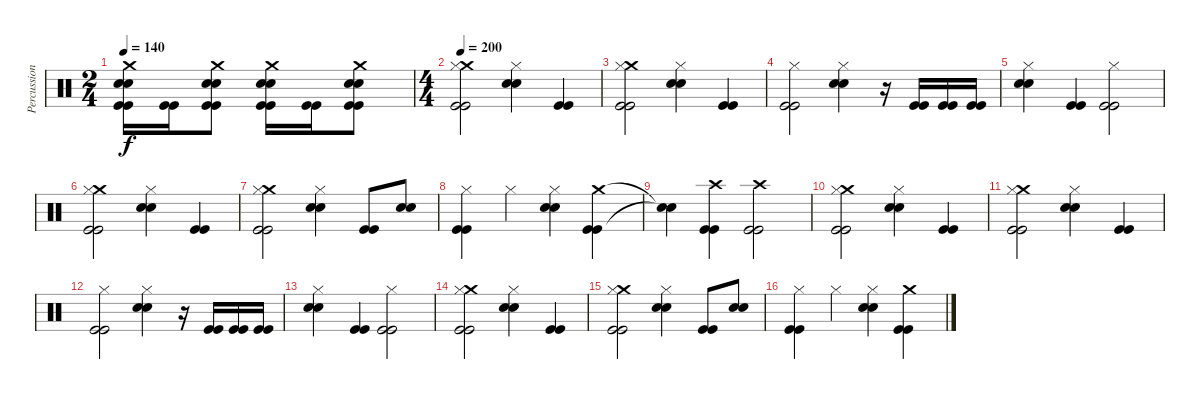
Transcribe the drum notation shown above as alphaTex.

\track ("Percussion" "Percussion") {instrument percussion}
\staff {score}
\articulation defaults
\ts (2 4)
\tempo 140
\clef neutral
\ks c
("Crash medium (hit)" "Snare (hit) 2" "Snare (hit) 2" "Kick (hit)" "Kick (hit)").16{dy f} ("Kick (hit)" "Kick (hit)").16 ("Crash medium (hit)" "Snare (hit) 2" "Snare (hit) 2" "Kick (hit)" "Kick (hit)").8 ("Crash medium (hit)" "Snare (hit) 2" "Snare (hit) 2" "Kick (hit)" "Kick (hit)").16 ("Kick (hit)" "Kick (hit)").16 ("Crash medium (hit)" "Snare (hit) 2" "Snare (hit) 2" "Kick (hit)" "Kick (hit)").8 |
\ts (4 4)
\tempo 200
("Crash medium (hit)" "Hi-Hat (closed)" "Kick (hit)" "Kick (hit)").2 ("Snare (hit) 2" "Snare (hit) 2" "Hi-Hat (closed)").4 ("Kick (hit)" "Kick (hit)").4 |
("Crash medium (hit)" "Hi-Hat (closed)" "Kick (hit)" "Kick (hit)").2 ("Snare (hit) 2" "Snare (hit) 2" "Hi-Hat (closed)").4 ("Kick (hit)" "Kick (hit)").4 |
("Hi-Hat (closed)" "Kick (hit)" "Kick (hit)").2 ("Snare (hit) 2" "Snare (hit) 2" "Hi-Hat (closed)").4 r.16 ("Kick (hit)" "Kick (hit)").16 ("Kick (hit)" "Kick (hit)").16 ("Kick (hit)" "Kick (hit)").16 |
("Snare (hit) 2" "Snare (hit) 2" "Hi-Hat (closed)").4 ("Kick (hit)" "Kick (hit)").4 ("Hi-Hat (closed)" "Kick (hit)" "Kick (hit)").2 |
("Crash medium (hit)" "Hi-Hat (closed)" "Kick (hit)" "Kick (hit)").2 ("Snare (hit) 2" "Snare (hit) 2" "Hi-Hat (closed)").4 ("Kick (hit)" "Kick (hit)").4 |
("Crash medium (hit)" "Hi-Hat (closed)" "Kick (hit)" "Kick (hit)").2 ("Snare (hit) 2" "Snare (hit) 2" "Hi-Hat (closed)").4 ("Kick (hit)" "Kick (hit)").8 ("Snare (hit) 2" "Snare (hit) 2").8 |
("Hi-Hat (closed)" "Kick (hit)" "Kick (hit)").4 "Hi-Hat (closed)".4 ("Snare (hit) 2" "Snare (hit) 2" "Hi-Hat (closed)").4 ("Crash medium (hit)" "Kick (hit)" "Kick (hit)").4 |
("Snare (hit)"{t} "Snare (hit)"{t}).4 ("Crash high (hit)" "Kick (hit)" "Kick (hit)").4 ("Crash high (hit)" "Kick (hit)" "Kick (hit)").2 |
("Crash medium (hit)" "Hi-Hat (closed)" "Kick (hit)" "Kick (hit)").2 ("Snare (hit) 2" "Snare (hit) 2" "Hi-Hat (closed)").4 ("Kick (hit)" "Kick (hit)").4 |
("Crash medium (hit)" "Hi-Hat (closed)" "Kick (hit)" "Kick (hit)").2 ("Snare (hit) 2" "Snare (hit) 2" "Hi-Hat (closed)").4 ("Kick (hit)" "Kick (hit)").4 |
("Hi-Hat (closed)" "Kick (hit)" "Kick (hit)").2 ("Snare (hit) 2" "Snare (hit) 2" "Hi-Hat (closed)").4 r.16 ("Kick (hit)" "Kick (hit)").16 ("Kick (hit)" "Kick (hit)").16 ("Kick (hit)" "Kick (hit)").16 |
("Snare (hit) 2" "Snare (hit) 2" "Hi-Hat (closed)").4 ("Kick (hit)" "Kick (hit)").4 ("Hi-Hat (closed)" "Kick (hit)" "Kick (hit)").2 |
("Crash medium (hit)" "Hi-Hat (closed)" "Kick (hit)" "Kick (hit)").2 ("Snare (hit) 2" "Snare (hit) 2" "Hi-Hat (closed)").4 ("Kick (hit)" "Kick (hit)").4 |
("Crash medium (hit)" "Hi-Hat (closed)" "Kick (hit)" "Kick (hit)").2 ("Snare (hit) 2" "Snare (hit) 2" "Hi-Hat (closed)").4 ("Kick (hit)" "Kick (hit)").8 ("Snare (hit) 2" "Snare (hit) 2").8 |
("Hi-Hat (closed)" "Kick (hit)" "Kick (hit)").4 "Hi-Hat (closed)".4 ("Snare (hit) 2" "Snare (hit) 2" "Hi-Hat (closed)").4 ("Crash medium (hit)" "Kick (hit)" "Kick (hit)").4
